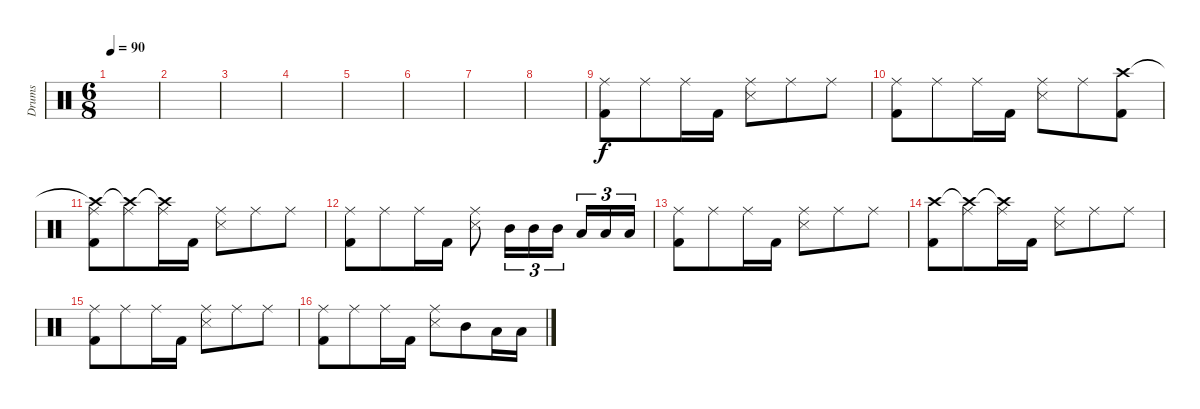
\track ("Drums" "Drums") {instrument percussion}
\staff {score}
\articulation defaults
\ts (6 8)
\tempo 90
\clef neutral
\ks c
|
|
|
|
|
|
|
|
("Ride (middle)" "Kick (hit) 2").8 "Ride (middle)".8 "Ride (middle)".16 "Kick (hit) 2".16 ("Ride (middle)" "Snare (side stick) 3").8 "Ride (middle)".8 "Ride (middle)".8 |
("Ride (middle)" "Kick (hit) 2").8 "Ride (middle)".8 "Ride (middle)".16 "Kick (hit) 2".16 ("Ride (middle)" "Snare (side stick) 3").8 "Ride (middle)".8 ("Crash high (hit)" "Kick (hit) 2").8 |
("Crash high (hit)"{t} "Ride (middle)" "Kick (hit) 2").8 ("Crash high (hit)"{t} "Ride (middle)").8 ("Crash high (hit)"{t} "Ride (middle)").16 "Kick (hit) 2".16 ("Ride (middle)" "Snare (side stick) 3").8 "Ride (middle)".8 "Ride (middle)".8 |
("Ride (middle)" "Kick (hit) 2").8 "Ride (middle)".8 "Ride (middle)".16 "Kick (hit) 2".16 ("Ride (middle)" "Snare (side stick) 3").8 "Mid Tom (hit)".16{tu (3 2)} "Mid Tom (hit)".16{tu (3 2)} "Mid Tom (hit)".16{tu (3 2)} "Low Tom (hit)".16{tu (3 2)} "Low Tom (hit)".16{tu (3 2)} "Low Tom (hit)".16{tu (3 2)} |
("Ride (middle)" "Kick (hit) 2").8 "Ride (middle)".8 "Ride (middle)".16 "Kick (hit) 2".16 ("Ride (middle)" "Snare (side stick) 3").8 "Ride (middle)".8 "Ride (middle)".8 |
("Crash high (hit)" "Kick (hit) 2").8 ("Crash high (hit)"{t} "Ride (middle)").8 ("Crash high (hit)"{t} "Ride (middle)").16 "Kick (hit) 2".16 ("Ride (middle)" "Snare (side stick) 3").8 "Ride (middle)".8 "Ride (middle)".8 |
("Ride (middle)" "Kick (hit) 2").8 "Ride (middle)".8 "Ride (middle)".16 "Kick (hit) 2".16 ("Ride (middle)" "Snare (side stick) 3").8 "Ride (middle)".8 "Ride (middle)".8 |
("Ride (middle)" "Kick (hit) 2").8 "Ride (middle)".8 "Ride (middle)".16 "Kick (hit) 2".16 ("Ride (middle)" "Snare (side stick) 3").8 "Mid Tom (hit)".8 "Low Tom (hit)".16 "Low Tom (hit)".16
